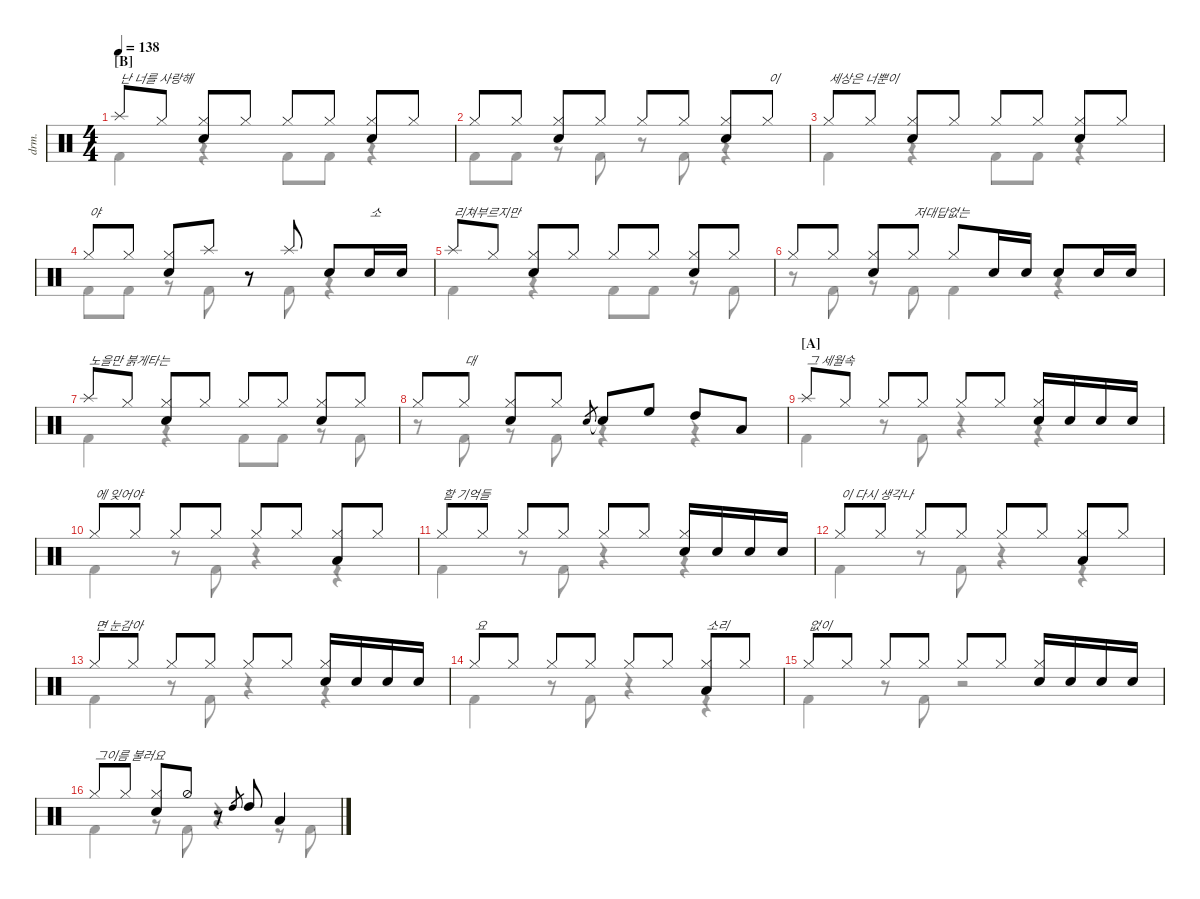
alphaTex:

\defaultSystemsLayout 4
\hideDynamics
\bracketExtendMode nobrackets
\track ("Drumkit" "drm.") {instrument percussion}
\staff {score}
\articulation defaults
\voice
\ts (4 4)
\section ("B" "")
\tempo 138
\clef neutral
\ks c "Splash (hit)".8{txt "난 너를 사랑해" dy mf} "Hi-Hat (closed)".8
("Hi-Hat (closed)" "Snare (hit) 2").8 "Hi-Hat (closed)".8 "Hi-Hat (closed)".8 "Hi-Hat (closed)".8 ("Hi-Hat (closed)" "Snare (hit) 2").8 "Hi-Hat (closed)".8 |
"Hi-Hat (closed)".8 "Hi-Hat (closed)".8 ("Hi-Hat (closed)" "Snare (hit) 2").8 "Hi-Hat (closed)".8 "Hi-Hat (closed)".8 "Hi-Hat (closed)".8 ("Hi-Hat (closed)" "Snare (hit) 2").8 "Hi-Hat (closed)".8{txt "이"} |
"Hi-Hat (closed)".8{txt "세상은 너뿐이"} "Hi-Hat (closed)".8 ("Hi-Hat (closed)" "Snare (hit) 2").8 "Hi-Hat (closed)".8 "Hi-Hat (closed)".8 "Hi-Hat (closed)".8 ("Hi-Hat (closed)" "Snare (hit) 2").8 "Hi-Hat (closed)".8 |
"Hi-Hat (closed)".8{txt "야"} "Hi-Hat (closed)".8 ("Hi-Hat (closed)" "Snare (hit) 2").8 "Splash (hit)".8 r.8 "Splash (hit)".8 "Snare (hit) 2".8 "Snare (hit) 2".16{txt "소"} "Snare (hit) 2".16 |
"Splash (hit)".8{txt "리쳐부르지만"} "Hi-Hat (closed)".8 ("Hi-Hat (closed)" "Snare (hit) 2").8 "Hi-Hat (closed)".8 "Hi-Hat (closed)".8 "Hi-Hat (closed)".8 ("Hi-Hat (closed)" "Snare (hit) 2").8 "Hi-Hat (closed)".8 |
"Hi-Hat (closed)".8 "Hi-Hat (closed)".8 ("Hi-Hat (closed)" "Snare (hit) 2").8 "Hi-Hat (closed)".8{txt "저대답없는"} "Hi-Hat (closed)".8 "Snare (hit) 2".16 "Snare (hit) 2".16 "Snare (hit) 2".8 "Snare (hit) 2".16 "Snare (hit) 2".16 |
"Splash (hit)".8{txt "노을만 붉게타는"} "Hi-Hat (closed)".8 ("Hi-Hat (closed)" "Snare (hit) 2").8 "Hi-Hat (closed)".8 "Hi-Hat (closed)".8 "Hi-Hat (closed)".8 ("Hi-Hat (closed)" "Snare (hit) 2").8 "Hi-Hat (closed)".8 |
"Hi-Hat (closed)".8 "Hi-Hat (closed)".8{txt "대"} ("Hi-Hat (closed)" "Snare (hit) 2").8 "Hi-Hat (closed)".8 "Snare (hit) 2".8{gr} "Snare (hit) 2"{t}.8 "High Floor Tom (hit)".8 "High Tom (hit)".8 "Low Tom (hit)".8 |
\section ("A" "")
"Splash (hit)".8{txt "그 세월속"} "Hi-Hat (closed)".8 "Hi-Hat (closed)".8 "Hi-Hat (closed)".8 "Hi-Hat (closed)".8 "Hi-Hat (closed)".8 ("Hi-Hat (closed)" "Snare (hit) 2").16 "Snare (hit) 2".16 "Snare (hit) 2".16 "Snare (hit) 2".16 |
"Hi-Hat (closed)".8{txt "에 잊어야"} "Hi-Hat (closed)".8 "Hi-Hat (closed)".8 "Hi-Hat (closed)".8 "Hi-Hat (closed)".8 "Hi-Hat (closed)".8 ("Hi-Hat (closed)" "Low Tom (hit)").8 "Hi-Hat (closed)".8 |
"Hi-Hat (closed)".8{txt "할 기억들"} "Hi-Hat (closed)".8 "Hi-Hat (closed)".8 "Hi-Hat (closed)".8 "Hi-Hat (closed)".8 "Hi-Hat (closed)".8 ("Hi-Hat (closed)" "Snare (hit) 2").16 "Snare (hit) 2".16 "Snare (hit) 2".16 "Snare (hit) 2".16 |
"Hi-Hat (closed)".8{txt "이 다시 생각나"} "Hi-Hat (closed)".8 "Hi-Hat (closed)".8 "Hi-Hat (closed)".8 "Hi-Hat (closed)".8 "Hi-Hat (closed)".8 ("Hi-Hat (closed)" "Low Tom (hit)").8 "Hi-Hat (closed)".8 |
"Hi-Hat (closed)".8{txt "면 눈감아"} "Hi-Hat (closed)".8 "Hi-Hat (closed)".8 "Hi-Hat (closed)".8 "Hi-Hat (closed)".8 "Hi-Hat (closed)".8 ("Hi-Hat (closed)" "Snare (hit) 2").16 "Snare (hit) 2".16 "Snare (hit) 2".16 "Snare (hit) 2".16 |
"Hi-Hat (closed)".8{txt "요 "} "Hi-Hat (closed)".8 "Hi-Hat (closed)".8 "Hi-Hat (closed)".8 "Hi-Hat (closed)".8 "Hi-Hat (closed)".8 ("Hi-Hat (closed)" "Low Tom (hit)").8{txt "소리"} "Hi-Hat (closed)".8 |
"Hi-Hat (closed)".8{txt "없이"} "Hi-Hat (closed)".8 "Hi-Hat (closed)".8 "Hi-Hat (closed)".8 "Hi-Hat (closed)".8 "Hi-Hat (closed)".8 ("Hi-Hat (closed)" "Snare (hit) 2").16 "Snare (hit) 2".16 "Snare (hit) 2".16 "Snare (hit) 2".16 |
"Hi-Hat (closed)".8{txt "그이름 불러요"} "Hi-Hat (closed)".8 ("Hi-Hat (closed)" "Snare (hit) 2").8 "Hi-Hat (half)".8 r.8 "High Tom (hit)".8{gr} "High Tom (hit)".8 "Low Tom (hit)".4
\voice
\clef neutral
\ottava regular
\simile none
\ks c
|
|
|
|
|
|
|
|
|
|
|
|
|
|
|
\voice
\clef neutral
\ottava regular
\simile none
\ks c "Kick (hit) 2".4{dy mf}
r.4 "Kick (hit) 2".8 "Kick (hit) 2".8 r.4 |
"Kick (hit) 2".8 "Kick (hit) 2".8 r.8 "Kick (hit) 2".8 r.8 "Kick (hit) 2".8 r.4 |
"Kick (hit) 2".4 r.4 "Kick (hit) 2".8 "Kick (hit) 2".8 r.4 |
"Kick (hit) 2".8 "Kick (hit) 2".8 r.8 "Kick (hit) 2".8 r.8 "Kick (hit) 2".8 r.4 |
"Kick (hit) 2".4 r.4 "Kick (hit) 2".8 "Kick (hit) 2".8 r.8 "Kick (hit) 2".8 |
r.8 "Kick (hit) 2".8 r.8 "Kick (hit) 2".8 "Kick (hit) 2".4 r.4 |
"Kick (hit) 2".4 r.4 "Kick (hit) 2".8 "Kick (hit) 2".8 r.8 "Kick (hit) 2".8 |
r.8 "Kick (hit) 2".8 r.8 "Kick (hit) 2".8 r.4 r.4 |
"Kick (hit) 2".4 r.8 "Kick (hit) 2".8 r.4 r.4 |
"Kick (hit) 2".4 r.8 "Kick (hit) 2".8 r.4 r.4 |
"Kick (hit) 2".4 r.8 "Kick (hit) 2".8 r.4 r.4 |
"Kick (hit) 2".4 r.8 "Kick (hit) 2".8 r.4 r.4 |
"Kick (hit) 2".4 r.8 "Kick (hit) 2".8 r.4 r.4 |
"Kick (hit) 2".4 r.8 "Kick (hit) 2".8 r.4 r.4 |
"Kick (hit) 2".4 r.8 "Kick (hit) 2".8 r.2 |
"Kick (hit) 2".4 r.8 "Kick (hit) 2".8 r.4 r.8 "Kick (hit) 2".8
